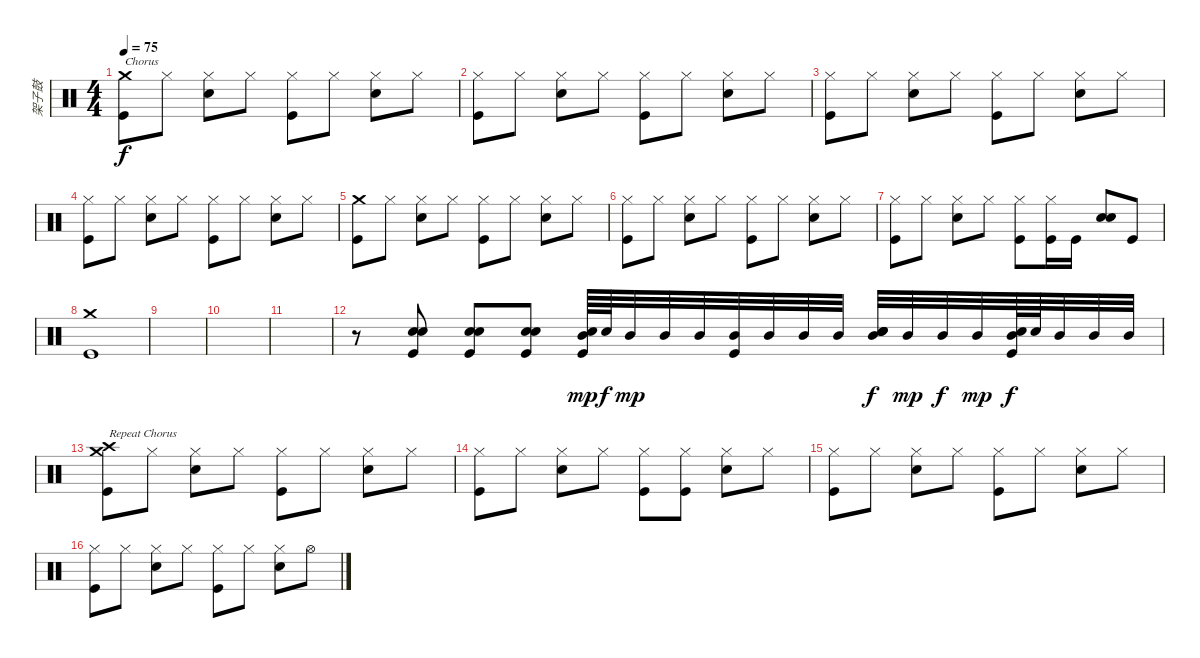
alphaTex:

\track ("架子鼓" "架子鼓") {instrument percussion}
\staff {score}
\articulation defaults
\ts (4 4)
\tempo 75
\clef neutral
\ks c
("Crash medium (hit)" "Kick (hit)").8{txt "Chorus" dy f} "Hi-Hat (closed)".8 ("Hi-Hat (closed)" "Snare (hit) 2").8 "Hi-Hat (closed)".8 ("Hi-Hat (closed)" "Kick (hit)").8 "Hi-Hat (closed)".8 ("Hi-Hat (closed)" "Snare (hit) 2").8 "Hi-Hat (closed)".8 |
("Hi-Hat (closed)" "Kick (hit)").8 "Hi-Hat (closed)".8 ("Hi-Hat (closed)" "Snare (hit) 2").8 "Hi-Hat (closed)".8 ("Hi-Hat (closed)" "Kick (hit)").8 "Hi-Hat (closed)".8 ("Hi-Hat (closed)" "Snare (hit) 2").8 "Hi-Hat (closed)".8 |
("Hi-Hat (closed)" "Kick (hit)").8 "Hi-Hat (closed)".8 ("Hi-Hat (closed)" "Snare (hit) 2").8 "Hi-Hat (closed)".8 ("Hi-Hat (closed)" "Kick (hit)").8 "Hi-Hat (closed)".8 ("Hi-Hat (closed)" "Snare (hit) 2").8 "Hi-Hat (closed)".8 |
("Hi-Hat (closed)" "Kick (hit)").8 "Hi-Hat (closed)".8 ("Hi-Hat (closed)" "Snare (hit) 2").8 "Hi-Hat (closed)".8 ("Hi-Hat (closed)" "Kick (hit)").8 "Hi-Hat (closed)".8 ("Hi-Hat (closed)" "Snare (hit) 2").8 "Hi-Hat (closed)".8 |
("Crash medium (hit)" "Kick (hit)").8 "Hi-Hat (closed)".8 ("Hi-Hat (closed)" "Snare (hit) 2").8 "Hi-Hat (closed)".8 ("Hi-Hat (closed)" "Kick (hit)").8 "Hi-Hat (closed)".8 ("Hi-Hat (closed)" "Snare (hit) 2").8 "Hi-Hat (closed)".8 |
("Hi-Hat (closed)" "Kick (hit)").8 "Hi-Hat (closed)".8 ("Hi-Hat (closed)" "Snare (hit) 2").8 "Hi-Hat (closed)".8 ("Hi-Hat (closed)" "Kick (hit)").8 "Hi-Hat (closed)".8 ("Hi-Hat (closed)" "Snare (hit) 2").8 "Hi-Hat (closed)".8 |
("Hi-Hat (closed)" "Kick (hit)").8 "Hi-Hat (closed)".8 ("Hi-Hat (closed)" "Snare (hit) 2").8 "Hi-Hat (closed)".8 ("Hi-Hat (closed)" "Kick (hit)").8 ("Hi-Hat (closed)" "Kick (hit)").16 "Kick (hit)".16 ("Snare (hit) 2" "Snare (hit) 2").8 "Kick (hit)".8 |
("Crash medium (hit)" "Kick (hit)").1 |
|
|
|
r.8 ("Snare (hit) 2" "Snare (hit) 2" "Kick (hit)").8 ("Snare (hit) 2" "Snare (hit) 2" "Kick (hit)").8 ("Snare (hit) 2" "Snare (hit) 2" "Kick (hit)").8 ("Snare (hit) 2" "Mid Tom (hit)" "Kick (hit)").64{dy mp} "Snare (hit) 2".64{dy f} "Mid Tom (hit)".32{dy mp} "Mid Tom (hit)".32 "Mid Tom (hit)".32 ("Mid Tom (hit)" "Kick (hit)").32 "Mid Tom (hit)".32 "Mid Tom (hit)".32 "Mid Tom (hit)".32 ("Snare (hit) 2" "Snare (hit) 2" "Mid Tom (hit)" "Snare (hit) 2").32{dy f} "Mid Tom (hit)".32{dy mp} "Mid Tom (hit)".32{dy f} "Mid Tom (hit)".32{dy mp} ("Snare (hit) 2" "Mid Tom (hit)" "Kick (hit)").64{dy f} "Snare (hit) 2".64 "Mid Tom (hit)".32 "Mid Tom (hit)".32 "Mid Tom (hit)".32 |
("Crash medium (hit)" "Crash high (hit)" "Kick (hit)").8{txt "Repeat Chorus"} "Hi-Hat (closed)".8 ("Hi-Hat (closed)" "Snare (hit) 2").8 "Hi-Hat (closed)".8 ("Hi-Hat (closed)" "Kick (hit)").8 "Hi-Hat (closed)".8 ("Hi-Hat (closed)" "Snare (hit) 2").8 "Hi-Hat (closed)".8 |
("Hi-Hat (closed)" "Kick (hit)").8 "Hi-Hat (closed)".8 ("Hi-Hat (closed)" "Snare (hit) 2").8 "Hi-Hat (closed)".8 ("Hi-Hat (closed)" "Kick (hit)").8 ("Hi-Hat (closed)" "Kick (hit)").8 ("Hi-Hat (closed)" "Snare (hit) 2").8 "Hi-Hat (closed)".8 |
("Hi-Hat (closed)" "Kick (hit)").8 "Hi-Hat (closed)".8 ("Hi-Hat (closed)" "Snare (hit) 2").8 "Hi-Hat (closed)".8 ("Hi-Hat (closed)" "Kick (hit)").8 "Hi-Hat (closed)".8 ("Hi-Hat (closed)" "Snare (hit) 2").8 "Hi-Hat (closed)".8 |
("Hi-Hat (closed)" "Kick (hit)").8 "Hi-Hat (closed)".8 ("Hi-Hat (closed)" "Snare (hit) 2").8 "Hi-Hat (closed)".8 ("Hi-Hat (closed)" "Kick (hit)").8 "Hi-Hat (closed)".8 ("Hi-Hat (closed)" "Snare (hit) 2").8 "Hi-Hat (open)".8
